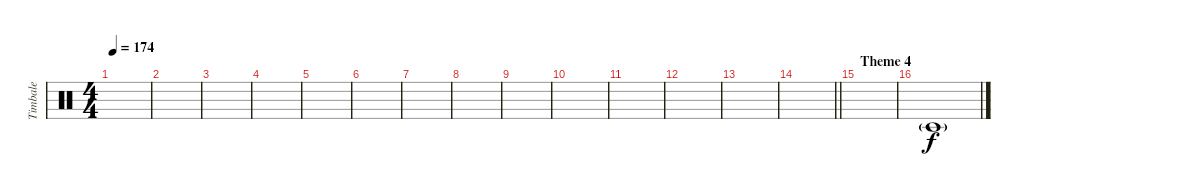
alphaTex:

\track ("Timbale" "Timbale") {instrument percussion}
\staff {score}
\articulation defaults
\ts (4 4)
\tempo 174
\clef neutral
\ks c
|
|
|
|
|
|
|
|
|
|
|
|
|
\barLineRight lightlight
|
\section ("" "Theme 4")
|
"Timbale low (hit)"{g}.1
